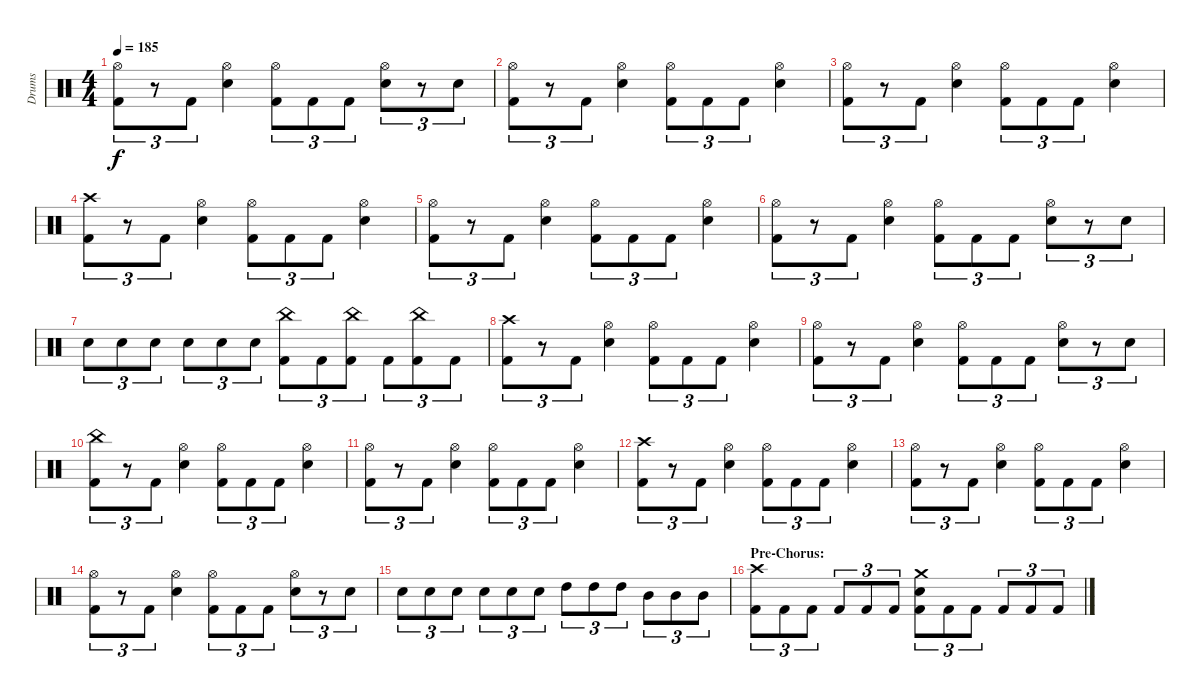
\track ("Drums" "Drums") {instrument percussion}
\staff {score}
\articulation defaults
\ts (4 4)
\tempo 185
\clef neutral
\ks c
("Hi-Hat (open)" "Kick (hit) 2").8{tu (3 2) dy f} r.8{tu (3 2)} "Kick (hit) 2".8{tu (3 2)} ("Hi-Hat (open)" "Electric Snare (hit)").4 ("Hi-Hat (open)" "Kick (hit) 2").8{tu (3 2)} "Kick (hit) 2".8{tu (3 2)} "Kick (hit) 2".8{tu (3 2)} ("Hi-Hat (open)" "Electric Snare (hit)").8{tu (3 2)} r.8{tu (3 2)} "Electric Snare (hit)".8{tu (3 2)} |
("Hi-Hat (open)" "Kick (hit) 2").8{tu (3 2)} r.8{tu (3 2)} "Kick (hit) 2".8{tu (3 2)} ("Hi-Hat (open)" "Electric Snare (hit)").4 ("Hi-Hat (open)" "Kick (hit) 2").8{tu (3 2)} "Kick (hit) 2".8{tu (3 2)} "Kick (hit) 2".8{tu (3 2)} ("Hi-Hat (open)" "Electric Snare (hit)").4 |
("Hi-Hat (open)" "Kick (hit) 2").8{tu (3 2)} r.8{tu (3 2)} "Kick (hit) 2".8{tu (3 2)} ("Hi-Hat (open)" "Electric Snare (hit)").4 ("Hi-Hat (open)" "Kick (hit) 2").8{tu (3 2)} "Kick (hit) 2".8{tu (3 2)} "Kick (hit) 2".8{tu (3 2)} ("Hi-Hat (open)" "Electric Snare (hit)").4 |
("Crash high (hit)" "Kick (hit) 2").8{tu (3 2)} r.8{tu (3 2)} "Kick (hit) 2".8{tu (3 2)} ("Hi-Hat (open)" "Electric Snare (hit)").4 ("Hi-Hat (open)" "Kick (hit) 2").8{tu (3 2)} "Kick (hit) 2".8{tu (3 2)} "Kick (hit) 2".8{tu (3 2)} ("Hi-Hat (open)" "Electric Snare (hit)").4 |
("Hi-Hat (open)" "Kick (hit) 2").8{tu (3 2)} r.8{tu (3 2)} "Kick (hit) 2".8{tu (3 2)} ("Hi-Hat (open)" "Electric Snare (hit)").4 ("Hi-Hat (open)" "Kick (hit) 2").8{tu (3 2)} "Kick (hit) 2".8{tu (3 2)} "Kick (hit) 2".8{tu (3 2)} ("Hi-Hat (open)" "Electric Snare (hit)").4 |
("Hi-Hat (open)" "Kick (hit) 2").8{tu (3 2)} r.8{tu (3 2)} "Kick (hit) 2".8{tu (3 2)} ("Hi-Hat (open)" "Electric Snare (hit)").4 ("Hi-Hat (open)" "Kick (hit) 2").8{tu (3 2)} "Kick (hit) 2".8{tu (3 2)} "Kick (hit) 2".8{tu (3 2)} ("Hi-Hat (open)" "Electric Snare (hit)").8{tu (3 2)} r.8{tu (3 2)} "Electric Snare (hit)".8{tu (3 2)} |
"Electric Snare (hit)".8{tu (3 2)} "Electric Snare (hit)".8{tu (3 2)} "Electric Snare (hit)".8{tu (3 2)} "Electric Snare (hit)".8{tu (3 2)} "Electric Snare (hit)".8{tu (3 2)} "Electric Snare (hit)".8{tu (3 2)} ("China (hit)" "Kick (hit) 2").8{tu (3 2)} "Kick (hit) 2".8{tu (3 2)} ("China (hit)" "Kick (hit) 2").8{tu (3 2)} "Kick (hit) 2".8{tu (3 2)} ("China (hit)" "Kick (hit) 2").8{tu (3 2)} "Kick (hit) 2".8{tu (3 2)} |
("Crash high (hit)" "Kick (hit) 2").8{tu (3 2)} r.8{tu (3 2)} "Kick (hit) 2".8{tu (3 2)} ("Hi-Hat (open)" "Electric Snare (hit)").4 ("Hi-Hat (open)" "Kick (hit) 2").8{tu (3 2)} "Kick (hit) 2".8{tu (3 2)} "Kick (hit) 2".8{tu (3 2)} ("Hi-Hat (open)" "Electric Snare (hit)").4 |
("Hi-Hat (open)" "Kick (hit) 2").8{tu (3 2)} r.8{tu (3 2)} "Kick (hit) 2".8{tu (3 2)} ("Hi-Hat (open)" "Electric Snare (hit)").4 ("Hi-Hat (open)" "Kick (hit) 2").8{tu (3 2)} "Kick (hit) 2".8{tu (3 2)} "Kick (hit) 2".8{tu (3 2)} ("Hi-Hat (open)" "Electric Snare (hit)").8{tu (3 2)} r.8{tu (3 2)} "Electric Snare (hit)".8{tu (3 2)} |
("China (hit)" "Kick (hit) 2").8{tu (3 2)} r.8{tu (3 2)} "Kick (hit) 2".8{tu (3 2)} ("Hi-Hat (open)" "Electric Snare (hit)").4 ("Hi-Hat (open)" "Kick (hit) 2").8{tu (3 2)} "Kick (hit) 2".8{tu (3 2)} "Kick (hit) 2".8{tu (3 2)} ("Hi-Hat (open)" "Electric Snare (hit)").4 |
("Hi-Hat (open)" "Kick (hit) 2").8{tu (3 2)} r.8{tu (3 2)} "Kick (hit) 2".8{tu (3 2)} ("Hi-Hat (open)" "Electric Snare (hit)").4 ("Hi-Hat (open)" "Kick (hit) 2").8{tu (3 2)} "Kick (hit) 2".8{tu (3 2)} "Kick (hit) 2".8{tu (3 2)} ("Hi-Hat (open)" "Electric Snare (hit)").4 |
("Crash high (hit)" "Kick (hit) 2").8{tu (3 2)} r.8{tu (3 2)} "Kick (hit) 2".8{tu (3 2)} ("Hi-Hat (open)" "Electric Snare (hit)").4 ("Hi-Hat (open)" "Kick (hit) 2").8{tu (3 2)} "Kick (hit) 2".8{tu (3 2)} "Kick (hit) 2".8{tu (3 2)} ("Hi-Hat (open)" "Electric Snare (hit)").4 |
("Hi-Hat (open)" "Kick (hit) 2").8{tu (3 2)} r.8{tu (3 2)} "Kick (hit) 2".8{tu (3 2)} ("Hi-Hat (open)" "Electric Snare (hit)").4 ("Hi-Hat (open)" "Kick (hit) 2").8{tu (3 2)} "Kick (hit) 2".8{tu (3 2)} "Kick (hit) 2".8{tu (3 2)} ("Hi-Hat (open)" "Electric Snare (hit)").4 |
("Hi-Hat (open)" "Kick (hit) 2").8{tu (3 2)} r.8{tu (3 2)} "Kick (hit) 2".8{tu (3 2)} ("Hi-Hat (open)" "Electric Snare (hit)").4 ("Hi-Hat (open)" "Kick (hit) 2").8{tu (3 2)} "Kick (hit) 2".8{tu (3 2)} "Kick (hit) 2".8{tu (3 2)} ("Hi-Hat (open)" "Electric Snare (hit)").8{tu (3 2)} r.8{tu (3 2)} "Electric Snare (hit)".8{tu (3 2)} |
"Electric Snare (hit)".8{tu (3 2)} "Electric Snare (hit)".8{tu (3 2)} "Electric Snare (hit)".8{tu (3 2)} "Electric Snare (hit)".8{tu (3 2)} "Electric Snare (hit)".8{tu (3 2)} "Electric Snare (hit)".8{tu (3 2)} "High Tom (hit)".8{tu (3 2)} "High Tom (hit)".8{tu (3 2)} "High Tom (hit)".8{tu (3 2)} "Mid Tom (hit)".8{tu (3 2)} "Mid Tom (hit)".8{tu (3 2)} "Mid Tom (hit)".8{tu (3 2)} |
\section ("" "Pre-Chorus:")
("Crash high (hit)" "Kick (hit) 2").8{tu (3 2)} "Kick (hit) 2".8{tu (3 2)} "Kick (hit) 2".8{tu (3 2)} "Kick (hit) 2".8{tu (3 2)} "Kick (hit) 2".8{tu (3 2)} "Kick (hit) 2".8{tu (3 2)} ("Crash medium (hit)" "Electric Snare (hit)" "Kick (hit) 2").8{tu (3 2)} "Kick (hit) 2".8{tu (3 2)} "Kick (hit) 2".8{tu (3 2)} "Kick (hit) 2".8{tu (3 2)} "Kick (hit) 2".8{tu (3 2)} "Kick (hit) 2".8{tu (3 2)}
